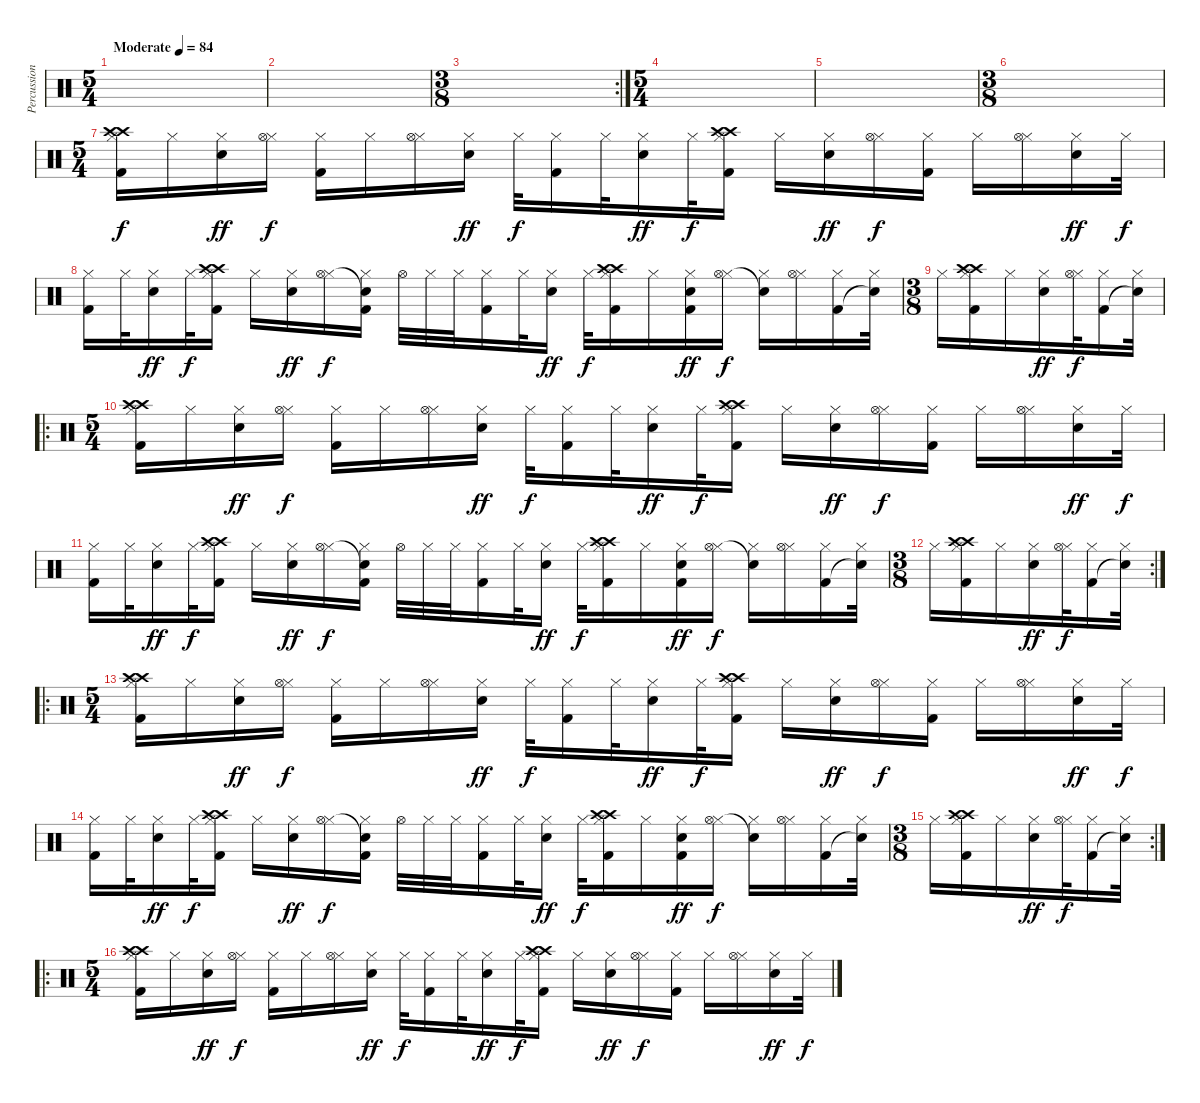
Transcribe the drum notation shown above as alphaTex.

\track ("Percussion" "Percussion") {instrument percussion}
\staff {score}
\articulation defaults
\ts (5 4)
\tempo (84 "Moderate")
\clef neutral
\ks c
|
|
\rc 2
\ts (3 8)
|
\ts (5 4)
|
|
\ts (3 8)
|
\ts (5 4)
("Hi-Hat (closed)" "Crash high (hit)" "Crash high (hit)" "Kick (hit) 2").16 "Hi-Hat (closed)".16 ("Hi-Hat (closed)" "Electric Snare (hit)").16{dy ff} ("Hi-Hat (closed)" "Hi-Hat (open)").16{dy f} ("Hi-Hat (closed)" "Kick (hit) 2").16 "Hi-Hat (closed)".16 ("Hi-Hat (closed)" "Hi-Hat (open)").16 ("Hi-Hat (closed)" "Electric Snare (hit)").16{dy ff} "Hi-Hat (closed)".32{dy f} ("Hi-Hat (closed)" "Kick (hit) 2").16 "Hi-Hat (closed)".32 ("Hi-Hat (closed)" "Electric Snare (hit)").16{dy ff} "Hi-Hat (closed)".32{dy f} ("Hi-Hat (closed)" "Crash high (hit)" "Crash high (hit)" "Kick (hit) 2").16 "Hi-Hat (closed)".16 ("Hi-Hat (closed)" "Electric Snare (hit)").16{dy ff} ("Hi-Hat (closed)" "Hi-Hat (open)").16{dy f} ("Hi-Hat (closed)" "Kick (hit) 2").16 "Hi-Hat (closed)".16 ("Hi-Hat (closed)" "Hi-Hat (open)").16 ("Hi-Hat (closed)" "Electric Snare (hit)").16{dy ff} "Hi-Hat (closed)".32{dy f} |
("Hi-Hat (closed)" "Kick (hit) 2").16 "Hi-Hat (closed)".32 ("Hi-Hat (closed)" "Electric Snare (hit)").16{dy ff} "Hi-Hat (closed)".32{dy f} ("Hi-Hat (closed)" "Crash high (hit)" "Crash high (hit)" "Kick (hit) 2").16 "Hi-Hat (closed)".16 ("Hi-Hat (closed)" "Electric Snare (hit)").16{dy ff} ("Hi-Hat (closed)" "Hi-Hat (open)").16{dy f} ("Hi-Hat (closed)" "Snare (hit)"{t} "Kick (hit) 2").16 "Hi-Hat (open)".32 "Hi-Hat (closed)".32 "Hi-Hat (closed)".32 ("Hi-Hat (closed)" "Kick (hit) 2").16 "Hi-Hat (closed)".32 ("Hi-Hat (closed)" "Electric Snare (hit)").16{dy ff} "Hi-Hat (closed)".32{dy f} ("Hi-Hat (closed)" "Crash high (hit)" "Crash high (hit)" "Kick (hit) 2").16 "Hi-Hat (closed)".16 ("Hi-Hat (closed)" "Electric Snare (hit)" "Kick (hit) 2").16{dy ff} ("Hi-Hat (closed)" "Hi-Hat (open)").16{dy f} ("Hi-Hat (closed)" "Snare (hit)"{t}).16 ("Hi-Hat (closed)" "Hi-Hat (open)").16 ("Hi-Hat (closed)" "Kick (hit) 2").16 ("Hi-Hat (closed)" "Snare (hit)"{t}).32 |
\ts (3 8)
"Hi-Hat (closed)".16 ("Hi-Hat (closed)" "Crash high (hit)" "Crash high (hit)" "Kick (hit) 2").16 "Hi-Hat (closed)".16 ("Hi-Hat (closed)" "Electric Snare (hit)").16{dy ff} ("Hi-Hat (closed)" "Hi-Hat (open)").32{dy f} ("Hi-Hat (closed)" "Kick (hit) 2").16 ("Hi-Hat (closed)" "Snare (hit)"{t}).32 |
\ro
\ts (5 4)
("Hi-Hat (closed)" "Crash high (hit)" "Crash high (hit)" "Kick (hit) 2").16 "Hi-Hat (closed)".16 ("Hi-Hat (closed)" "Electric Snare (hit)").16{dy ff} ("Hi-Hat (closed)" "Hi-Hat (open)").16{dy f} ("Hi-Hat (closed)" "Kick (hit) 2").16 "Hi-Hat (closed)".16 ("Hi-Hat (closed)" "Hi-Hat (open)").16 ("Hi-Hat (closed)" "Electric Snare (hit)").16{dy ff} "Hi-Hat (closed)".32{dy f} ("Hi-Hat (closed)" "Kick (hit) 2").16 "Hi-Hat (closed)".32 ("Hi-Hat (closed)" "Electric Snare (hit)").16{dy ff} "Hi-Hat (closed)".32{dy f} ("Hi-Hat (closed)" "Crash high (hit)" "Crash high (hit)" "Kick (hit) 2").16 "Hi-Hat (closed)".16 ("Hi-Hat (closed)" "Electric Snare (hit)").16{dy ff} ("Hi-Hat (closed)" "Hi-Hat (open)").16{dy f} ("Hi-Hat (closed)" "Kick (hit) 2").16 "Hi-Hat (closed)".16 ("Hi-Hat (closed)" "Hi-Hat (open)").16 ("Hi-Hat (closed)" "Electric Snare (hit)").16{dy ff} "Hi-Hat (closed)".32{dy f} |
("Hi-Hat (closed)" "Kick (hit) 2").16 "Hi-Hat (closed)".32 ("Hi-Hat (closed)" "Electric Snare (hit)").16{dy ff} "Hi-Hat (closed)".32{dy f} ("Hi-Hat (closed)" "Crash high (hit)" "Crash high (hit)" "Kick (hit) 2").16 "Hi-Hat (closed)".16 ("Hi-Hat (closed)" "Electric Snare (hit)").16{dy ff} ("Hi-Hat (closed)" "Hi-Hat (open)").16{dy f} ("Hi-Hat (closed)" "Snare (hit)"{t} "Kick (hit) 2").16 "Hi-Hat (open)".32 "Hi-Hat (closed)".32 "Hi-Hat (closed)".32 ("Hi-Hat (closed)" "Kick (hit) 2").16 "Hi-Hat (closed)".32 ("Hi-Hat (closed)" "Electric Snare (hit)").16{dy ff} "Hi-Hat (closed)".32{dy f} ("Hi-Hat (closed)" "Crash high (hit)" "Crash high (hit)" "Kick (hit) 2").16 "Hi-Hat (closed)".16 ("Hi-Hat (closed)" "Electric Snare (hit)" "Kick (hit) 2").16{dy ff} ("Hi-Hat (closed)" "Hi-Hat (open)").16{dy f} ("Hi-Hat (closed)" "Snare (hit)"{t}).16 ("Hi-Hat (closed)" "Hi-Hat (open)").16 ("Hi-Hat (closed)" "Kick (hit) 2").16 ("Hi-Hat (closed)" "Snare (hit)"{t}).32 |
\rc 2
\ts (3 8)
"Hi-Hat (closed)".16 ("Hi-Hat (closed)" "Crash high (hit)" "Crash high (hit)" "Kick (hit) 2").16 "Hi-Hat (closed)".16 ("Hi-Hat (closed)" "Electric Snare (hit)").16{dy ff} ("Hi-Hat (closed)" "Hi-Hat (open)").32{dy f} ("Hi-Hat (closed)" "Kick (hit) 2").16 ("Hi-Hat (closed)" "Snare (hit)"{t}).32 |
\ro
\ts (5 4)
("Hi-Hat (closed)" "Crash high (hit)" "Crash high (hit)" "Kick (hit) 2").16 "Hi-Hat (closed)".16 ("Hi-Hat (closed)" "Electric Snare (hit)").16{dy ff} ("Hi-Hat (closed)" "Hi-Hat (open)").16{dy f} ("Hi-Hat (closed)" "Kick (hit) 2").16 "Hi-Hat (closed)".16 ("Hi-Hat (closed)" "Hi-Hat (open)").16 ("Hi-Hat (closed)" "Electric Snare (hit)").16{dy ff} "Hi-Hat (closed)".32{dy f} ("Hi-Hat (closed)" "Kick (hit) 2").16 "Hi-Hat (closed)".32 ("Hi-Hat (closed)" "Electric Snare (hit)").16{dy ff} "Hi-Hat (closed)".32{dy f} ("Hi-Hat (closed)" "Crash high (hit)" "Crash high (hit)" "Kick (hit) 2").16 "Hi-Hat (closed)".16 ("Hi-Hat (closed)" "Electric Snare (hit)").16{dy ff} ("Hi-Hat (closed)" "Hi-Hat (open)").16{dy f} ("Hi-Hat (closed)" "Kick (hit) 2").16 "Hi-Hat (closed)".16 ("Hi-Hat (closed)" "Hi-Hat (open)").16 ("Hi-Hat (closed)" "Electric Snare (hit)").16{dy ff} "Hi-Hat (closed)".32{dy f} |
("Hi-Hat (closed)" "Kick (hit) 2").16 "Hi-Hat (closed)".32 ("Hi-Hat (closed)" "Electric Snare (hit)").16{dy ff} "Hi-Hat (closed)".32{dy f} ("Hi-Hat (closed)" "Crash high (hit)" "Crash high (hit)" "Kick (hit) 2").16 "Hi-Hat (closed)".16 ("Hi-Hat (closed)" "Electric Snare (hit)").16{dy ff} ("Hi-Hat (closed)" "Hi-Hat (open)").16{dy f} ("Hi-Hat (closed)" "Snare (hit)"{t} "Kick (hit) 2").16 "Hi-Hat (open)".32 "Hi-Hat (closed)".32 "Hi-Hat (closed)".32 ("Hi-Hat (closed)" "Kick (hit) 2").16 "Hi-Hat (closed)".32 ("Hi-Hat (closed)" "Electric Snare (hit)").16{dy ff} "Hi-Hat (closed)".32{dy f} ("Hi-Hat (closed)" "Crash high (hit)" "Crash high (hit)" "Kick (hit) 2").16 "Hi-Hat (closed)".16 ("Hi-Hat (closed)" "Electric Snare (hit)" "Kick (hit) 2").16{dy ff} ("Hi-Hat (closed)" "Hi-Hat (open)").16{dy f} ("Hi-Hat (closed)" "Snare (hit)"{t}).16 ("Hi-Hat (closed)" "Hi-Hat (open)").16 ("Hi-Hat (closed)" "Kick (hit) 2").16 ("Hi-Hat (closed)" "Snare (hit)"{t}).32 |
\rc 2
\ts (3 8)
"Hi-Hat (closed)".16 ("Hi-Hat (closed)" "Crash high (hit)" "Crash high (hit)" "Kick (hit) 2").16 "Hi-Hat (closed)".16 ("Hi-Hat (closed)" "Electric Snare (hit)").16{dy ff} ("Hi-Hat (closed)" "Hi-Hat (open)").32{dy f} ("Hi-Hat (closed)" "Kick (hit) 2").16 ("Hi-Hat (closed)" "Snare (hit)"{t}).32 |
\ro
\ts (5 4)
("Hi-Hat (closed)" "Crash high (hit)" "Crash high (hit)" "Kick (hit) 2").16 "Hi-Hat (closed)".16 ("Hi-Hat (closed)" "Electric Snare (hit)").16{dy ff} ("Hi-Hat (closed)" "Hi-Hat (open)").16{dy f} ("Hi-Hat (closed)" "Kick (hit) 2").16 "Hi-Hat (closed)".16 ("Hi-Hat (closed)" "Hi-Hat (open)").16 ("Hi-Hat (closed)" "Electric Snare (hit)").16{dy ff} "Hi-Hat (closed)".32{dy f} ("Hi-Hat (closed)" "Kick (hit) 2").16 "Hi-Hat (closed)".32 ("Hi-Hat (closed)" "Electric Snare (hit)").16{dy ff} "Hi-Hat (closed)".32{dy f} ("Hi-Hat (closed)" "Crash high (hit)" "Crash high (hit)" "Kick (hit) 2").16 "Hi-Hat (closed)".16 ("Hi-Hat (closed)" "Electric Snare (hit)").16{dy ff} ("Hi-Hat (closed)" "Hi-Hat (open)").16{dy f} ("Hi-Hat (closed)" "Kick (hit) 2").16 "Hi-Hat (closed)".16 ("Hi-Hat (closed)" "Hi-Hat (open)").16 ("Hi-Hat (closed)" "Electric Snare (hit)").16{dy ff} "Hi-Hat (closed)".32{dy f}
